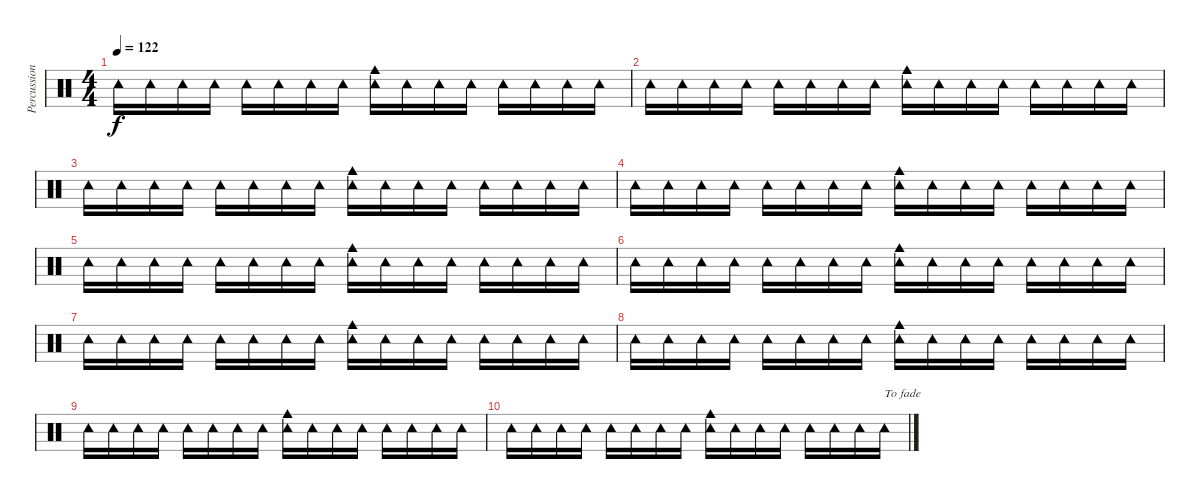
\track ("Percussion" "Percussion") {instrument percussion}
\staff {score}
\articulation defaults
\ts (4 4)
\tempo 122
\clef neutral
\ks c "Tambourine (hit)".16{dy f} "Tambourine (hit)".16 "Tambourine (hit)".16 "Tambourine (hit)".16 "Tambourine (hit)".16 "Tambourine (hit)".16 "Tambourine (hit)".16 "Tambourine (hit)".16
("Tambourine (hit)" "Cowbell medium (hit)").16 "Tambourine (hit)".16 "Tambourine (hit)".16 "Tambourine (hit)".16 "Tambourine (hit)".16 "Tambourine (hit)".16 "Tambourine (hit)".16 "Tambourine (hit)".16 |
"Tambourine (hit)".16 "Tambourine (hit)".16 "Tambourine (hit)".16 "Tambourine (hit)".16 "Tambourine (hit)".16 "Tambourine (hit)".16 "Tambourine (hit)".16 "Tambourine (hit)".16 ("Tambourine (hit)" "Cowbell medium (hit)").16 "Tambourine (hit)".16 "Tambourine (hit)".16 "Tambourine (hit)".16 "Tambourine (hit)".16 "Tambourine (hit)".16 "Tambourine (hit)".16 "Tambourine (hit)".16 |
"Tambourine (hit)".16 "Tambourine (hit)".16 "Tambourine (hit)".16 "Tambourine (hit)".16 "Tambourine (hit)".16 "Tambourine (hit)".16 "Tambourine (hit)".16 "Tambourine (hit)".16 ("Tambourine (hit)" "Cowbell medium (hit)").16 "Tambourine (hit)".16 "Tambourine (hit)".16 "Tambourine (hit)".16 "Tambourine (hit)".16 "Tambourine (hit)".16 "Tambourine (hit)".16 "Tambourine (hit)".16 |
"Tambourine (hit)".16 "Tambourine (hit)".16 "Tambourine (hit)".16 "Tambourine (hit)".16 "Tambourine (hit)".16 "Tambourine (hit)".16 "Tambourine (hit)".16 "Tambourine (hit)".16 ("Tambourine (hit)" "Cowbell medium (hit)").16 "Tambourine (hit)".16 "Tambourine (hit)".16 "Tambourine (hit)".16 "Tambourine (hit)".16 "Tambourine (hit)".16 "Tambourine (hit)".16 "Tambourine (hit)".16 |
"Tambourine (hit)".16 "Tambourine (hit)".16 "Tambourine (hit)".16 "Tambourine (hit)".16 "Tambourine (hit)".16 "Tambourine (hit)".16 "Tambourine (hit)".16 "Tambourine (hit)".16 ("Tambourine (hit)" "Cowbell medium (hit)").16 "Tambourine (hit)".16 "Tambourine (hit)".16 "Tambourine (hit)".16 "Tambourine (hit)".16 "Tambourine (hit)".16 "Tambourine (hit)".16 "Tambourine (hit)".16 |
"Tambourine (hit)".16 "Tambourine (hit)".16 "Tambourine (hit)".16 "Tambourine (hit)".16 "Tambourine (hit)".16 "Tambourine (hit)".16 "Tambourine (hit)".16 "Tambourine (hit)".16 ("Tambourine (hit)" "Cowbell medium (hit)").16 "Tambourine (hit)".16 "Tambourine (hit)".16 "Tambourine (hit)".16 "Tambourine (hit)".16 "Tambourine (hit)".16 "Tambourine (hit)".16 "Tambourine (hit)".16 |
"Tambourine (hit)".16 "Tambourine (hit)".16 "Tambourine (hit)".16 "Tambourine (hit)".16 "Tambourine (hit)".16 "Tambourine (hit)".16 "Tambourine (hit)".16 "Tambourine (hit)".16 ("Tambourine (hit)" "Cowbell medium (hit)").16 "Tambourine (hit)".16 "Tambourine (hit)".16 "Tambourine (hit)".16 "Tambourine (hit)".16 "Tambourine (hit)".16 "Tambourine (hit)".16 "Tambourine (hit)".16 |
"Tambourine (hit)".16 "Tambourine (hit)".16 "Tambourine (hit)".16 "Tambourine (hit)".16 "Tambourine (hit)".16 "Tambourine (hit)".16 "Tambourine (hit)".16 "Tambourine (hit)".16 ("Tambourine (hit)" "Cowbell medium (hit)").16 "Tambourine (hit)".16 "Tambourine (hit)".16 "Tambourine (hit)".16 "Tambourine (hit)".16 "Tambourine (hit)".16 "Tambourine (hit)".16 "Tambourine (hit)".16 |
"Tambourine (hit)".16 "Tambourine (hit)".16 "Tambourine (hit)".16 "Tambourine (hit)".16 "Tambourine (hit)".16 "Tambourine (hit)".16 "Tambourine (hit)".16 "Tambourine (hit)".16 ("Tambourine (hit)" "Cowbell medium (hit)").16 "Tambourine (hit)".16 "Tambourine (hit)".16 "Tambourine (hit)".16 "Tambourine (hit)".16 "Tambourine (hit)".16 "Tambourine (hit)".16 "Tambourine (hit)".16 |
"Tambourine (hit)".16 "Tambourine (hit)".16 "Tambourine (hit)".16 "Tambourine (hit)".16 "Tambourine (hit)".16 "Tambourine (hit)".16 "Tambourine (hit)".16 "Tambourine (hit)".16 ("Tambourine (hit)" "Cowbell medium (hit)").16 "Tambourine (hit)".16 "Tambourine (hit)".16 "Tambourine (hit)".16 "Tambourine (hit)".16 "Tambourine (hit)".16 "Tambourine (hit)".16 "Tambourine (hit)".16{txt "To fade"}
